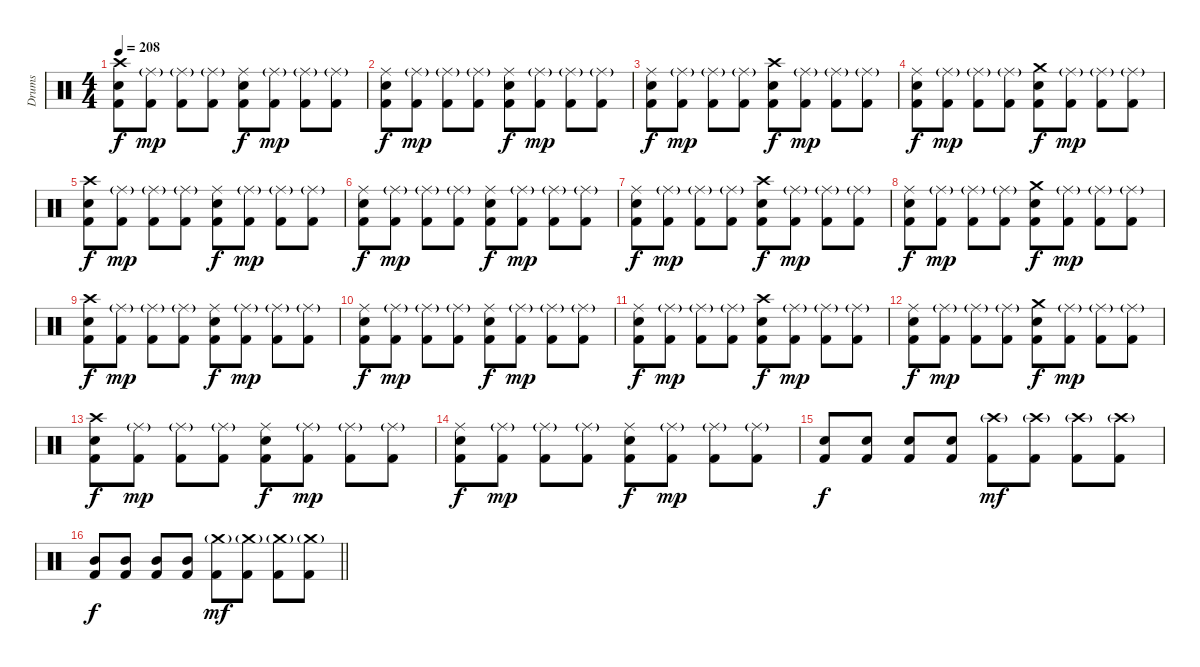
\track ("Drums" "Drums") {instrument percussion}
\staff {score}
\articulation defaults
\ts (4 4)
\tempo 208
\clef neutral
\ks c
("Crash high (hit)" "Electric Snare (hit)" "Kick (hit) 2").8{dy f} ("Ride (middle)"{g} "Kick (hit) 2").8{dy mp} ("Ride (middle)"{g} "Kick (hit) 2").8 ("Ride (middle)"{g} "Kick (hit) 2").8 ("Ride (middle)" "Electric Snare (hit)" "Kick (hit) 2").8{dy f} ("Ride (middle)"{g} "Kick (hit) 2").8{dy mp} ("Ride (middle)"{g} "Kick (hit) 2").8 ("Ride (middle)"{g} "Kick (hit) 2").8 |
("Ride (middle)" "Electric Snare (hit)" "Kick (hit) 2").8{dy f} ("Ride (middle)"{g} "Kick (hit) 2").8{dy mp} ("Ride (middle)"{g} "Kick (hit) 2").8 ("Ride (middle)"{g} "Kick (hit) 2").8 ("Ride (middle)" "Electric Snare (hit)" "Kick (hit) 2").8{dy f} ("Ride (middle)"{g} "Kick (hit) 2").8{dy mp} ("Ride (middle)"{g} "Kick (hit) 2").8 ("Ride (middle)"{g} "Kick (hit) 2").8 |
("Ride (middle)" "Electric Snare (hit)" "Kick (hit) 2").8{dy f} ("Ride (middle)"{g} "Kick (hit) 2").8{dy mp} ("Ride (middle)"{g} "Kick (hit) 2").8 ("Ride (middle)"{g} "Kick (hit) 2").8 ("Crash high (hit)" "Electric Snare (hit)" "Kick (hit) 2").8{dy f} ("Ride (middle)"{g} "Kick (hit) 2").8{dy mp} ("Ride (middle)"{g} "Kick (hit) 2").8 ("Ride (middle)"{g} "Kick (hit) 2").8 |
("Ride (middle)" "Electric Snare (hit)" "Kick (hit) 2").8{dy f} ("Ride (middle)"{g} "Kick (hit) 2").8{dy mp} ("Ride (middle)"{g} "Kick (hit) 2").8 ("Ride (middle)"{g} "Kick (hit) 2").8 ("Crash medium (hit)" "Electric Snare (hit)" "Kick (hit) 2").8{dy f} ("Ride (middle)"{g} "Kick (hit) 2").8{dy mp} ("Ride (middle)"{g} "Kick (hit) 2").8 ("Ride (middle)"{g} "Kick (hit) 2").8 |
("Crash high (hit)" "Electric Snare (hit)" "Kick (hit) 2").8{dy f} ("Ride (middle)"{g} "Kick (hit) 2").8{dy mp} ("Ride (middle)"{g} "Kick (hit) 2").8 ("Ride (middle)"{g} "Kick (hit) 2").8 ("Ride (middle)" "Electric Snare (hit)" "Kick (hit) 2").8{dy f} ("Ride (middle)"{g} "Kick (hit) 2").8{dy mp} ("Ride (middle)"{g} "Kick (hit) 2").8 ("Ride (middle)"{g} "Kick (hit) 2").8 |
("Ride (middle)" "Electric Snare (hit)" "Kick (hit) 2").8{dy f} ("Ride (middle)"{g} "Kick (hit) 2").8{dy mp} ("Ride (middle)"{g} "Kick (hit) 2").8 ("Ride (middle)"{g} "Kick (hit) 2").8 ("Ride (middle)" "Electric Snare (hit)" "Kick (hit) 2").8{dy f} ("Ride (middle)"{g} "Kick (hit) 2").8{dy mp} ("Ride (middle)"{g} "Kick (hit) 2").8 ("Ride (middle)"{g} "Kick (hit) 2").8 |
("Ride (middle)" "Electric Snare (hit)" "Kick (hit) 2").8{dy f} ("Ride (middle)"{g} "Kick (hit) 2").8{dy mp} ("Ride (middle)"{g} "Kick (hit) 2").8 ("Ride (middle)"{g} "Kick (hit) 2").8 ("Crash high (hit)" "Electric Snare (hit)" "Kick (hit) 2").8{dy f} ("Ride (middle)"{g} "Kick (hit) 2").8{dy mp} ("Ride (middle)"{g} "Kick (hit) 2").8 ("Ride (middle)"{g} "Kick (hit) 2").8 |
("Ride (middle)" "Electric Snare (hit)" "Kick (hit) 2").8{dy f} ("Ride (middle)"{g} "Kick (hit) 2").8{dy mp} ("Ride (middle)"{g} "Kick (hit) 2").8 ("Ride (middle)"{g} "Kick (hit) 2").8 ("Crash medium (hit)" "Electric Snare (hit)" "Kick (hit) 2").8{dy f} ("Ride (middle)"{g} "Kick (hit) 2").8{dy mp} ("Ride (middle)"{g} "Kick (hit) 2").8 ("Ride (middle)"{g} "Kick (hit) 2").8 |
("Crash high (hit)" "Electric Snare (hit)" "Kick (hit) 2").8{dy f} ("Ride (middle)"{g} "Kick (hit) 2").8{dy mp} ("Ride (middle)"{g} "Kick (hit) 2").8 ("Ride (middle)"{g} "Kick (hit) 2").8 ("Ride (middle)" "Electric Snare (hit)" "Kick (hit) 2").8{dy f} ("Ride (middle)"{g} "Kick (hit) 2").8{dy mp} ("Ride (middle)"{g} "Kick (hit) 2").8 ("Ride (middle)"{g} "Kick (hit) 2").8 |
("Ride (middle)" "Electric Snare (hit)" "Kick (hit) 2").8{dy f} ("Ride (middle)"{g} "Kick (hit) 2").8{dy mp} ("Ride (middle)"{g} "Kick (hit) 2").8 ("Ride (middle)"{g} "Kick (hit) 2").8 ("Ride (middle)" "Electric Snare (hit)" "Kick (hit) 2").8{dy f} ("Ride (middle)"{g} "Kick (hit) 2").8{dy mp} ("Ride (middle)"{g} "Kick (hit) 2").8 ("Ride (middle)"{g} "Kick (hit) 2").8 |
("Ride (middle)" "Electric Snare (hit)" "Kick (hit) 2").8{dy f} ("Ride (middle)"{g} "Kick (hit) 2").8{dy mp} ("Ride (middle)"{g} "Kick (hit) 2").8 ("Ride (middle)"{g} "Kick (hit) 2").8 ("Crash high (hit)" "Electric Snare (hit)" "Kick (hit) 2").8{dy f} ("Ride (middle)"{g} "Kick (hit) 2").8{dy mp} ("Ride (middle)"{g} "Kick (hit) 2").8 ("Ride (middle)"{g} "Kick (hit) 2").8 |
("Ride (middle)" "Electric Snare (hit)" "Kick (hit) 2").8{dy f} ("Ride (middle)"{g} "Kick (hit) 2").8{dy mp} ("Ride (middle)"{g} "Kick (hit) 2").8 ("Ride (middle)"{g} "Kick (hit) 2").8 ("Crash medium (hit)" "Electric Snare (hit)" "Kick (hit) 2").8{dy f} ("Ride (middle)"{g} "Kick (hit) 2").8{dy mp} ("Ride (middle)"{g} "Kick (hit) 2").8 ("Ride (middle)"{g} "Kick (hit) 2").8 |
("Crash high (hit)" "Electric Snare (hit)" "Kick (hit) 2").8{dy f} ("Ride (middle)"{g} "Kick (hit) 2").8{dy mp} ("Ride (middle)"{g} "Kick (hit) 2").8 ("Ride (middle)"{g} "Kick (hit) 2").8 ("Ride (middle)" "Electric Snare (hit)" "Kick (hit) 2").8{dy f} ("Ride (middle)"{g} "Kick (hit) 2").8{dy mp} ("Ride (middle)"{g} "Kick (hit) 2").8 ("Ride (middle)"{g} "Kick (hit) 2").8 |
("Ride (middle)" "Electric Snare (hit)" "Kick (hit) 2").8{dy f} ("Ride (middle)"{g} "Kick (hit) 2").8{dy mp} ("Ride (middle)"{g} "Kick (hit) 2").8 ("Ride (middle)"{g} "Kick (hit) 2").8 ("Ride (middle)" "Electric Snare (hit)" "Kick (hit) 2").8{dy f} ("Ride (middle)"{g} "Kick (hit) 2").8{dy mp} ("Ride (middle)"{g} "Kick (hit) 2").8 ("Ride (middle)"{g} "Kick (hit) 2").8 |
("Electric Snare (hit)" "Kick (hit) 2").8{dy f} ("Electric Snare (hit)" "Kick (hit) 2").8 ("Electric Snare (hit)" "Kick (hit) 2").8 ("Electric Snare (hit)" "Kick (hit) 2").8 ("Crash high (hit)"{g} "Kick (hit) 2").8{dy mf} ("Crash high (hit)"{g} "Kick (hit) 2").8 ("Crash high (hit)"{g} "Kick (hit) 2").8 ("Crash high (hit)"{g} "Kick (hit) 2").8 |
\barLineRight lightlight
("Mid Tom (hit)" "Kick (hit) 2").8{dy f} ("Mid Tom (hit)" "Kick (hit) 2").8 ("Mid Tom (hit)" "Kick (hit) 2").8 ("Mid Tom (hit)" "Kick (hit) 2").8 ("Crash medium (hit)"{g} "Kick (hit) 2").8{dy mf} ("Crash medium (hit)"{g} "Kick (hit) 2").8 ("Crash medium (hit)"{g} "Kick (hit) 2").8 ("Crash medium (hit)"{g} "Kick (hit) 2").8
